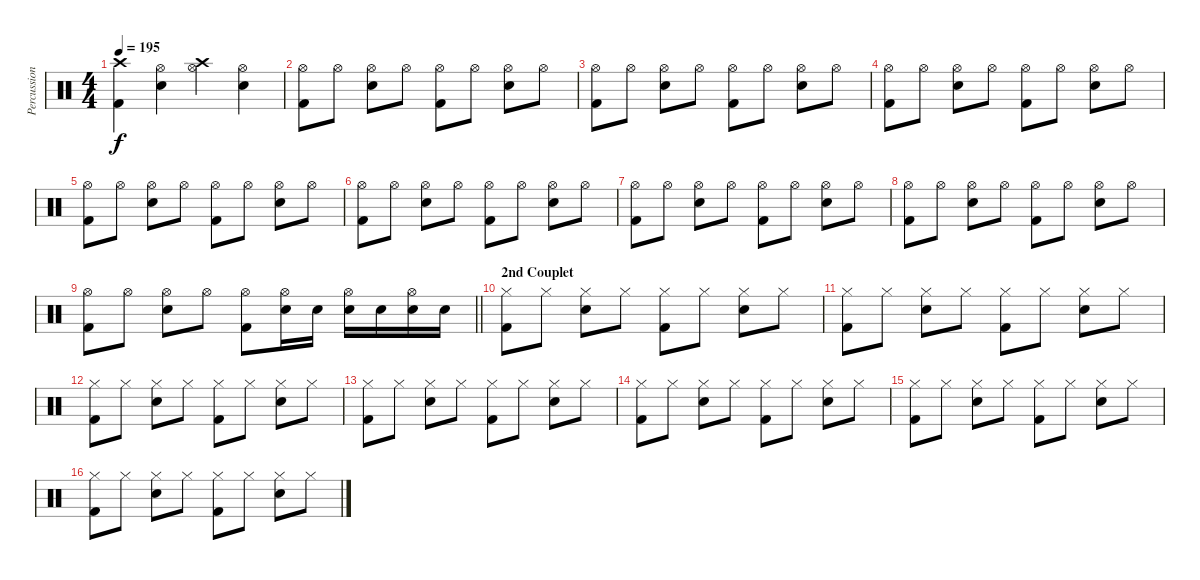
\track ("Percussions" "Percussion") {instrument percussion}
\staff {score}
\articulation defaults
\ts (4 4)
\tempo 195
\clef neutral
\ks c
("Crash high (hit)" "Kick (hit) 2").4{dy f} ("Hi-Hat (open)" "Electric Snare (hit)").4 ("Crash high (hit)" "Hi-Hat (open)").4 ("Hi-Hat (open)" "Electric Snare (hit)").4 |
("Hi-Hat (open)" "Kick (hit) 2").8 "Hi-Hat (open)".8 ("Hi-Hat (open)" "Electric Snare (hit)").8 "Hi-Hat (open)".8 ("Hi-Hat (open)" "Kick (hit) 2").8 "Hi-Hat (open)".8 ("Hi-Hat (open)" "Electric Snare (hit)").8 "Hi-Hat (open)".8 |
("Hi-Hat (open)" "Kick (hit) 2").8 "Hi-Hat (open)".8 ("Hi-Hat (open)" "Electric Snare (hit)").8 "Hi-Hat (open)".8 ("Hi-Hat (open)" "Kick (hit) 2").8 "Hi-Hat (open)".8 ("Hi-Hat (open)" "Electric Snare (hit)").8 "Hi-Hat (open)".8 |
("Hi-Hat (open)" "Kick (hit) 2").8 "Hi-Hat (open)".8 ("Hi-Hat (open)" "Electric Snare (hit)").8 "Hi-Hat (open)".8 ("Hi-Hat (open)" "Kick (hit) 2").8 "Hi-Hat (open)".8 ("Hi-Hat (open)" "Electric Snare (hit)").8 "Hi-Hat (open)".8 |
("Hi-Hat (open)" "Kick (hit) 2").8 "Hi-Hat (open)".8 ("Hi-Hat (open)" "Electric Snare (hit)").8 "Hi-Hat (open)".8 ("Hi-Hat (open)" "Kick (hit) 2").8 "Hi-Hat (open)".8 ("Hi-Hat (open)" "Electric Snare (hit)").8 "Hi-Hat (open)".8 |
("Hi-Hat (open)" "Kick (hit) 2").8 "Hi-Hat (open)".8 ("Hi-Hat (open)" "Electric Snare (hit)").8 "Hi-Hat (open)".8 ("Hi-Hat (open)" "Kick (hit) 2").8 "Hi-Hat (open)".8 ("Hi-Hat (open)" "Electric Snare (hit)").8 "Hi-Hat (open)".8 |
("Hi-Hat (open)" "Kick (hit) 2").8 "Hi-Hat (open)".8 ("Hi-Hat (open)" "Electric Snare (hit)").8 "Hi-Hat (open)".8 ("Hi-Hat (open)" "Kick (hit) 2").8 "Hi-Hat (open)".8 ("Hi-Hat (open)" "Electric Snare (hit)").8 "Hi-Hat (open)".8 |
("Hi-Hat (open)" "Kick (hit) 2").8 "Hi-Hat (open)".8 ("Hi-Hat (open)" "Electric Snare (hit)").8 "Hi-Hat (open)".8 ("Hi-Hat (open)" "Kick (hit) 2").8 "Hi-Hat (open)".8 ("Hi-Hat (open)" "Electric Snare (hit)").8 "Hi-Hat (open)".8 |
\barLineRight lightlight
("Hi-Hat (open)" "Kick (hit) 2").8 "Hi-Hat (open)".8 ("Hi-Hat (open)" "Electric Snare (hit)").8 "Hi-Hat (open)".8 ("Hi-Hat (open)" "Kick (hit) 2").8 ("Hi-Hat (open)" "Electric Snare (hit)").16 "Electric Snare (hit)".16 ("Hi-Hat (open)" "Electric Snare (hit)").16 "Electric Snare (hit)".16 ("Hi-Hat (open)" "Electric Snare (hit)").16 "Electric Snare (hit)".16 |
\section ("" "2nd Couplet")
("Hi-Hat (closed)" "Kick (hit) 2").8 "Hi-Hat (closed)".8 ("Hi-Hat (closed)" "Electric Snare (hit)").8 "Hi-Hat (closed)".8 ("Hi-Hat (closed)" "Kick (hit) 2").8 "Hi-Hat (closed)".8 ("Hi-Hat (closed)" "Electric Snare (hit)").8 "Hi-Hat (closed)".8 |
("Hi-Hat (closed)" "Kick (hit) 2").8 "Hi-Hat (closed)".8 ("Hi-Hat (closed)" "Electric Snare (hit)").8 "Hi-Hat (closed)".8 ("Hi-Hat (closed)" "Kick (hit) 2").8 "Hi-Hat (closed)".8 ("Hi-Hat (closed)" "Electric Snare (hit)").8 "Hi-Hat (closed)".8 |
("Hi-Hat (closed)" "Kick (hit) 2").8 "Hi-Hat (closed)".8 ("Hi-Hat (closed)" "Electric Snare (hit)").8 "Hi-Hat (closed)".8 ("Hi-Hat (closed)" "Kick (hit) 2").8 "Hi-Hat (closed)".8 ("Hi-Hat (closed)" "Electric Snare (hit)").8 "Hi-Hat (closed)".8 |
("Hi-Hat (closed)" "Kick (hit) 2").8 "Hi-Hat (closed)".8 ("Hi-Hat (closed)" "Electric Snare (hit)").8 "Hi-Hat (closed)".8 ("Hi-Hat (closed)" "Kick (hit) 2").8 "Hi-Hat (closed)".8 ("Hi-Hat (closed)" "Electric Snare (hit)").8 "Hi-Hat (closed)".8 |
("Hi-Hat (closed)" "Kick (hit) 2").8 "Hi-Hat (closed)".8 ("Hi-Hat (closed)" "Electric Snare (hit)").8 "Hi-Hat (closed)".8 ("Hi-Hat (closed)" "Kick (hit) 2").8 "Hi-Hat (closed)".8 ("Hi-Hat (closed)" "Electric Snare (hit)").8 "Hi-Hat (closed)".8 |
("Hi-Hat (closed)" "Kick (hit) 2").8 "Hi-Hat (closed)".8 ("Hi-Hat (closed)" "Electric Snare (hit)").8 "Hi-Hat (closed)".8 ("Hi-Hat (closed)" "Kick (hit) 2").8 "Hi-Hat (closed)".8 ("Hi-Hat (closed)" "Electric Snare (hit)").8 "Hi-Hat (closed)".8 |
("Hi-Hat (closed)" "Kick (hit) 2").8 "Hi-Hat (closed)".8 ("Hi-Hat (closed)" "Electric Snare (hit)").8 "Hi-Hat (closed)".8 ("Hi-Hat (closed)" "Kick (hit) 2").8 "Hi-Hat (closed)".8 ("Hi-Hat (closed)" "Electric Snare (hit)").8 "Hi-Hat (closed)".8
